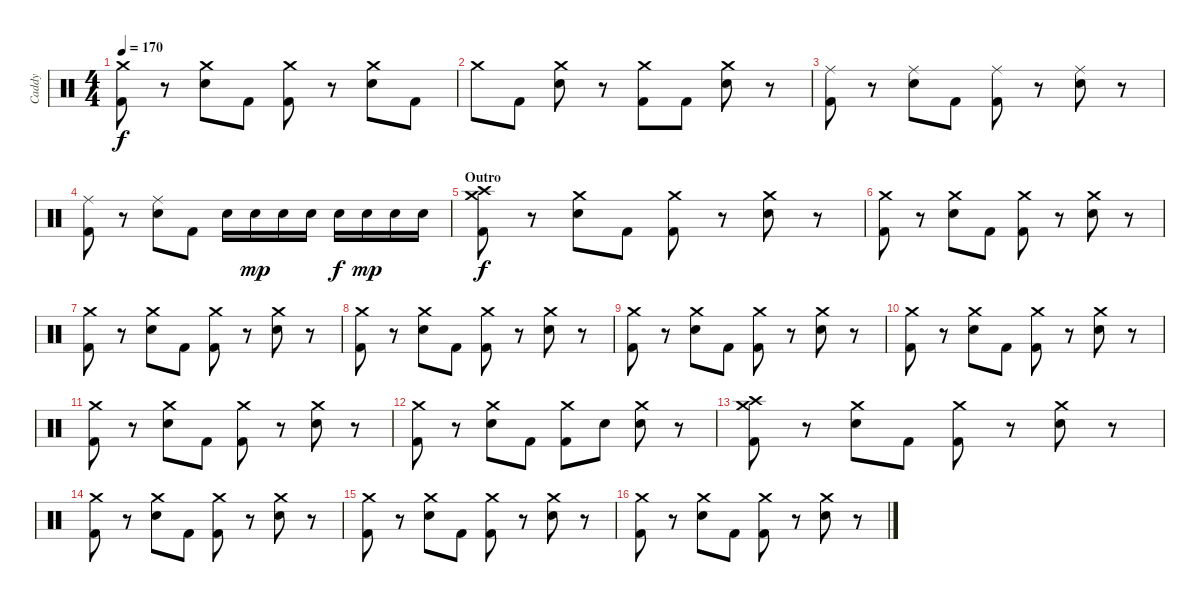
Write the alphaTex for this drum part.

\track ("Caddy" "Caddy") {instrument percussion}
\staff {score}
\articulation defaults
\ts (4 4)
\tempo 170
\clef neutral
\ks c
("Crash medium (hit)" "Kick (hit) 2").8{dy f} r.8 ("Crash medium (hit)" "Electric Snare (hit)").8 "Kick (hit) 2".8 ("Crash medium (hit)" "Kick (hit) 2").8 r.8 ("Crash medium (hit)" "Electric Snare (hit)").8 "Kick (hit) 2".8 |
"Crash medium (hit)".8 "Kick (hit) 2".8 ("Crash medium (hit)" "Electric Snare (hit)").8 r.8 ("Crash medium (hit)" "Kick (hit) 2").8 "Kick (hit) 2".8 ("Crash medium (hit)" "Electric Snare (hit)").8 r.8 |
("Ride (middle)" "Kick (hit) 2").8 r.8 ("Ride (middle)" "Electric Snare (hit)").8 "Kick (hit) 2".8 ("Ride (middle)" "Kick (hit) 2").8 r.8 ("Ride (middle)" "Electric Snare (hit)").8 r.8 |
("Ride (middle)" "Kick (hit) 2").8 r.8 ("Ride (middle)" "Electric Snare (hit)").8 "Kick (hit) 2".8 "Electric Snare (hit)".16 "Electric Snare (hit)".16{dy mp} "Electric Snare (hit)".16 "Electric Snare (hit)".16 "Electric Snare (hit)".16{dy f} "Electric Snare (hit)".16{dy mp} "Electric Snare (hit)".16 "Electric Snare (hit)".16 |
\section ("" "Outro")
("Crash medium (hit)" "Crash high (hit)" "Kick (hit) 2").8{dy f} r.8 ("Crash medium (hit)" "Electric Snare (hit)").8 "Kick (hit) 2".8 ("Crash medium (hit)" "Kick (hit) 2").8 r.8 ("Crash medium (hit)" "Electric Snare (hit)").8 r.8 |
("Crash medium (hit)" "Kick (hit) 2").8 r.8 ("Crash medium (hit)" "Electric Snare (hit)").8 "Kick (hit) 2".8 ("Crash medium (hit)" "Kick (hit) 2").8 r.8 ("Crash medium (hit)" "Electric Snare (hit)").8 r.8 |
("Crash medium (hit)" "Kick (hit) 2").8 r.8 ("Crash medium (hit)" "Electric Snare (hit)").8 "Kick (hit) 2".8 ("Crash medium (hit)" "Kick (hit) 2").8 r.8 ("Crash medium (hit)" "Electric Snare (hit)").8 r.8 |
("Crash medium (hit)" "Kick (hit) 2").8 r.8 ("Crash medium (hit)" "Electric Snare (hit)").8 "Kick (hit) 2".8 ("Crash medium (hit)" "Kick (hit) 2").8 r.8 ("Crash medium (hit)" "Electric Snare (hit)").8 r.8 |
("Crash medium (hit)" "Kick (hit) 2").8 r.8 ("Crash medium (hit)" "Electric Snare (hit)").8 "Kick (hit) 2".8 ("Crash medium (hit)" "Kick (hit) 2").8 r.8 ("Crash medium (hit)" "Electric Snare (hit)").8 r.8 |
("Crash medium (hit)" "Kick (hit) 2").8 r.8 ("Crash medium (hit)" "Electric Snare (hit)").8 "Kick (hit) 2".8 ("Crash medium (hit)" "Kick (hit) 2").8 r.8 ("Crash medium (hit)" "Electric Snare (hit)").8 r.8 |
("Crash medium (hit)" "Kick (hit) 2").8 r.8 ("Crash medium (hit)" "Electric Snare (hit)").8 "Kick (hit) 2".8 ("Crash medium (hit)" "Kick (hit) 2").8 r.8 ("Crash medium (hit)" "Electric Snare (hit)").8 r.8 |
("Crash medium (hit)" "Kick (hit) 2").8 r.8 ("Crash medium (hit)" "Electric Snare (hit)").8 "Kick (hit) 2".8 ("Crash medium (hit)" "Kick (hit) 2").8 "Electric Snare (hit)".8 ("Crash medium (hit)" "Electric Snare (hit)").8 r.8 |
("Crash medium (hit)" "Crash high (hit)" "Kick (hit) 2").8 r.8 ("Crash medium (hit)" "Electric Snare (hit)").8 "Kick (hit) 2".8 ("Crash medium (hit)" "Kick (hit) 2").8 r.8 ("Crash medium (hit)" "Electric Snare (hit)").8 r.8 |
("Crash medium (hit)" "Kick (hit) 2").8 r.8 ("Crash medium (hit)" "Electric Snare (hit)").8 "Kick (hit) 2".8 ("Crash medium (hit)" "Kick (hit) 2").8 r.8 ("Crash medium (hit)" "Electric Snare (hit)").8 r.8 |
("Crash medium (hit)" "Kick (hit) 2").8 r.8 ("Crash medium (hit)" "Electric Snare (hit)").8 "Kick (hit) 2".8 ("Crash medium (hit)" "Kick (hit) 2").8 r.8 ("Crash medium (hit)" "Electric Snare (hit)").8 r.8 |
("Crash medium (hit)" "Kick (hit) 2").8 r.8 ("Crash medium (hit)" "Electric Snare (hit)").8 "Kick (hit) 2".8 ("Crash medium (hit)" "Kick (hit) 2").8 r.8 ("Crash medium (hit)" "Electric Snare (hit)").8 r.8
